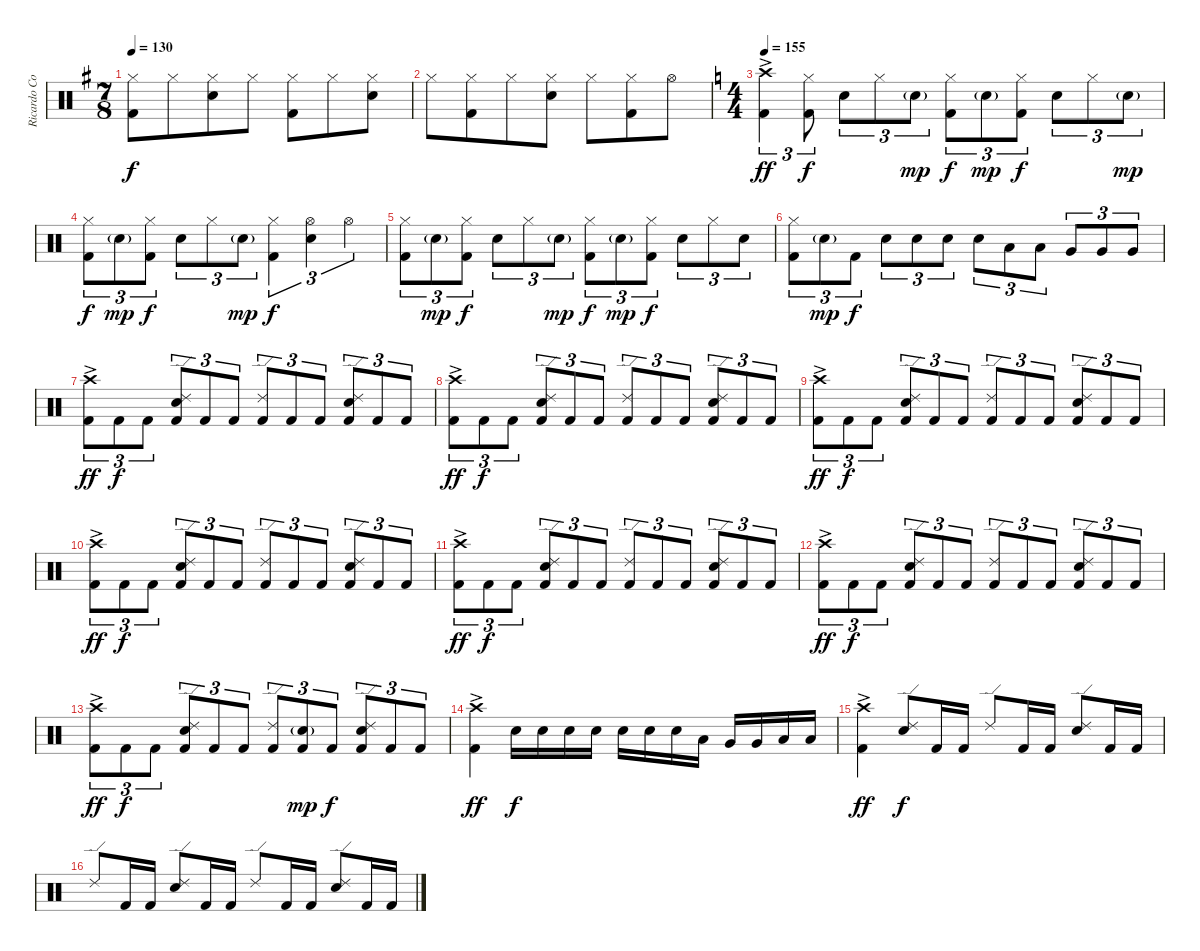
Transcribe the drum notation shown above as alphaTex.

\track ("Ricardo Confessori" "Ricardo Co") {instrument percussion}
\staff {score}
\articulation defaults
\ts (7 8)
\tempo 130
\clef neutral
\ks eminor
("Hi-Hat (closed)" "Kick (hit) 2").8{dy f} "Hi-Hat (closed)".8 ("Hi-Hat (closed)" "Electric Snare (hit)").8 "Hi-Hat (closed)".8 ("Hi-Hat (closed)" "Kick (hit) 2").8 "Hi-Hat (closed)".8 ("Hi-Hat (closed)" "Electric Snare (hit)").8 |
"Hi-Hat (closed)".8 ("Hi-Hat (closed)" "Kick (hit) 2").8 "Hi-Hat (closed)".8 ("Hi-Hat (closed)" "Electric Snare (hit)").8 "Hi-Hat (closed)".8 ("Hi-Hat (closed)" "Kick (hit) 2").8 "Hi-Hat (open)".8 |
\ts (4 4)
\tempo 155
\ks aminor
("Crash high (hit)"{ac} "Kick (hit) 2"{ac}).4{tu (3 2) dy ff} ("Hi-Hat (closed)" "Kick (hit) 2").8{tu (3 2) dy f} "Electric Snare (hit)".8{tu (3 2)} "Hi-Hat (closed)".8{tu (3 2)} "Electric Snare (hit)"{g}.8{tu (3 2) dy mp} ("Kick (hit) 2" "Hi-Hat (closed)").8{tu (3 2) dy f} "Electric Snare (hit)"{g}.8{tu (3 2) dy mp} ("Kick (hit) 2" "Hi-Hat (closed)").8{tu (3 2) dy f} "Electric Snare (hit)".8{tu (3 2)} "Hi-Hat (closed)".8{tu (3 2)} "Electric Snare (hit)"{g}.8{tu (3 2) dy mp} |
("Kick (hit) 2" "Hi-Hat (closed)").8{tu (3 2) dy f} "Electric Snare (hit)"{g}.8{tu (3 2) dy mp} ("Kick (hit) 2" "Hi-Hat (closed)").8{tu (3 2) dy f} "Electric Snare (hit)".8{tu (3 2)} "Hi-Hat (closed)".8{tu (3 2)} "Electric Snare (hit)"{g}.8{tu (3 2) dy mp} ("Hi-Hat (closed)" "Kick (hit) 2").4{tu (3 2) dy f} ("Hi-Hat (open)" "Electric Snare (hit)").4{tu (3 2)} "Hi-Hat (open)".4{tu (3 2)} |
("Kick (hit) 2" "Hi-Hat (closed)").8{tu (3 2)} "Electric Snare (hit)"{g}.8{tu (3 2) dy mp} ("Kick (hit) 2" "Hi-Hat (closed)").8{tu (3 2) dy f} "Electric Snare (hit)".8{tu (3 2)} "Hi-Hat (closed)".8{tu (3 2)} "Electric Snare (hit)"{g}.8{tu (3 2) dy mp} ("Kick (hit) 2" "Hi-Hat (closed)").8{tu (3 2) dy f} "Electric Snare (hit)"{g}.8{tu (3 2) dy mp} ("Kick (hit) 2" "Hi-Hat (closed)").8{tu (3 2) dy f} "Electric Snare (hit)".8{tu (3 2)} "Hi-Hat (closed)".8{tu (3 2)} "Electric Snare (hit)".8{tu (3 2)} |
("Hi-Hat (closed)" "Kick (hit) 2").8{tu (3 2)} "Electric Snare (hit)"{g}.8{tu (3 2) dy mp} "Kick (hit) 2".8{tu (3 2) dy f} "Electric Snare (hit)".8{tu (3 2)} "Electric Snare (hit)".8{tu (3 2)} "Electric Snare (hit)".8{tu (3 2)} "Electric Snare (hit)".8{tu (3 2)} "Low Tom (hit)".8{tu (3 2)} "Low Tom (hit)".8{tu (3 2)} "Very Low Tom (hit)".8{tu (3 2)} "Very Low Tom (hit)".8{tu (3 2)} "Very Low Tom (hit)".8{tu (3 2)} |
("Crash high (hit)"{ac} "Kick (hit) 2"{ac}).8{tu (3 2) dy ff} "Kick (hit) 2".8{tu (3 2) dy f} "Kick (hit) 2".8{tu (3 2)} ("Kick (hit) 2" "Ride (edge) 2" "Electric Snare (hit)").8{tu (3 2)} "Kick (hit) 2".8{tu (3 2)} "Kick (hit) 2".8{tu (3 2)} ("Kick (hit) 2" "Ride (edge) 2").8{tu (3 2)} "Kick (hit) 2".8{tu (3 2)} "Kick (hit) 2".8{tu (3 2)} ("Kick (hit) 2" "Ride (edge) 2" "Electric Snare (hit)").8{tu (3 2)} "Kick (hit) 2".8{tu (3 2)} "Kick (hit) 2".8{tu (3 2)} |
("Crash high (hit)"{ac} "Kick (hit) 2"{ac}).8{tu (3 2) dy ff} "Kick (hit) 2".8{tu (3 2) dy f} "Kick (hit) 2".8{tu (3 2)} ("Kick (hit) 2" "Ride (edge) 2" "Electric Snare (hit)").8{tu (3 2)} "Kick (hit) 2".8{tu (3 2)} "Kick (hit) 2".8{tu (3 2)} ("Kick (hit) 2" "Ride (edge) 2").8{tu (3 2)} "Kick (hit) 2".8{tu (3 2)} "Kick (hit) 2".8{tu (3 2)} ("Kick (hit) 2" "Ride (edge) 2" "Electric Snare (hit)").8{tu (3 2)} "Kick (hit) 2".8{tu (3 2)} "Kick (hit) 2".8{tu (3 2)} |
("Crash high (hit)"{ac} "Kick (hit) 2"{ac}).8{tu (3 2) dy ff} "Kick (hit) 2".8{tu (3 2) dy f} "Kick (hit) 2".8{tu (3 2)} ("Kick (hit) 2" "Ride (edge) 2" "Electric Snare (hit)").8{tu (3 2)} "Kick (hit) 2".8{tu (3 2)} "Kick (hit) 2".8{tu (3 2)} ("Kick (hit) 2" "Ride (edge) 2").8{tu (3 2)} "Kick (hit) 2".8{tu (3 2)} "Kick (hit) 2".8{tu (3 2)} ("Kick (hit) 2" "Ride (edge) 2" "Electric Snare (hit)").8{tu (3 2)} "Kick (hit) 2".8{tu (3 2)} "Kick (hit) 2".8{tu (3 2)} |
("Crash high (hit)"{ac} "Kick (hit) 2"{ac}).8{tu (3 2) dy ff} "Kick (hit) 2".8{tu (3 2) dy f} "Kick (hit) 2".8{tu (3 2)} ("Kick (hit) 2" "Ride (edge) 2" "Electric Snare (hit)").8{tu (3 2)} "Kick (hit) 2".8{tu (3 2)} "Kick (hit) 2".8{tu (3 2)} ("Kick (hit) 2" "Ride (edge) 2").8{tu (3 2)} "Kick (hit) 2".8{tu (3 2)} "Kick (hit) 2".8{tu (3 2)} ("Kick (hit) 2" "Ride (edge) 2" "Electric Snare (hit)").8{tu (3 2)} "Kick (hit) 2".8{tu (3 2)} "Kick (hit) 2".8{tu (3 2)} |
("Crash high (hit)"{ac} "Kick (hit) 2"{ac}).8{tu (3 2) dy ff} "Kick (hit) 2".8{tu (3 2) dy f} "Kick (hit) 2".8{tu (3 2)} ("Kick (hit) 2" "Ride (edge) 2" "Electric Snare (hit)").8{tu (3 2)} "Kick (hit) 2".8{tu (3 2)} "Kick (hit) 2".8{tu (3 2)} ("Kick (hit) 2" "Ride (edge) 2").8{tu (3 2)} "Kick (hit) 2".8{tu (3 2)} "Kick (hit) 2".8{tu (3 2)} ("Kick (hit) 2" "Ride (edge) 2" "Electric Snare (hit)").8{tu (3 2)} "Kick (hit) 2".8{tu (3 2)} "Kick (hit) 2".8{tu (3 2)} |
("Crash high (hit)"{ac} "Kick (hit) 2"{ac}).8{tu (3 2) dy ff} "Kick (hit) 2".8{tu (3 2) dy f} "Kick (hit) 2".8{tu (3 2)} ("Kick (hit) 2" "Ride (edge) 2" "Electric Snare (hit)").8{tu (3 2)} "Kick (hit) 2".8{tu (3 2)} "Kick (hit) 2".8{tu (3 2)} ("Kick (hit) 2" "Ride (edge) 2").8{tu (3 2)} "Kick (hit) 2".8{tu (3 2)} "Kick (hit) 2".8{tu (3 2)} ("Kick (hit) 2" "Ride (edge) 2" "Electric Snare (hit)").8{tu (3 2)} "Kick (hit) 2".8{tu (3 2)} "Kick (hit) 2".8{tu (3 2)} |
("Crash high (hit)"{ac} "Kick (hit) 2"{ac}).8{tu (3 2) dy ff} "Kick (hit) 2".8{tu (3 2) dy f} "Kick (hit) 2".8{tu (3 2)} ("Kick (hit) 2" "Ride (edge) 2" "Electric Snare (hit)").8{tu (3 2)} "Kick (hit) 2".8{tu (3 2)} "Kick (hit) 2".8{tu (3 2)} ("Kick (hit) 2" "Ride (edge) 2").8{tu (3 2)} ("Kick (hit) 2" "Electric Snare (hit)"{g}).8{tu (3 2) dy mp} "Kick (hit) 2".8{tu (3 2) dy f} ("Kick (hit) 2" "Ride (edge) 2" "Electric Snare (hit)").8{tu (3 2)} "Kick (hit) 2".8{tu (3 2)} "Kick (hit) 2".8{tu (3 2)} |
("Crash high (hit)"{ac} "Kick (hit) 2"{ac}).4{dy ff} "Electric Snare (hit)".16{dy f} "Electric Snare (hit)".16 "Electric Snare (hit)".16 "Electric Snare (hit)".16 "Electric Snare (hit)".16 "Electric Snare (hit)".16 "Electric Snare (hit)".16 "Low Tom (hit)".16 "Very Low Tom (hit)".16 "Very Low Tom (hit)".16 "Low Floor Tom (hit)".16 "Low Floor Tom (hit)".16 |
("Crash high (hit)"{ac} "Kick (hit) 2"{ac}).4{dy ff} ("Ride (edge) 2" "Electric Snare (hit)").8{dy f} "Kick (hit) 2".16 "Kick (hit) 2".16 "Ride (edge) 2".8 "Kick (hit) 2".16 "Kick (hit) 2".16 ("Ride (edge) 2" "Electric Snare (hit)").8 "Kick (hit) 2".16 "Kick (hit) 2".16 |
"Ride (edge) 2".8 "Kick (hit) 2".16 "Kick (hit) 2".16 ("Electric Snare (hit)" "Ride (edge) 2").8 "Kick (hit) 2".16 "Kick (hit) 2".16 "Ride (edge) 2".8 "Kick (hit) 2".16 "Kick (hit) 2".16 ("Electric Snare (hit)" "Ride (edge) 2").8 "Kick (hit) 2".16 "Kick (hit) 2".16
